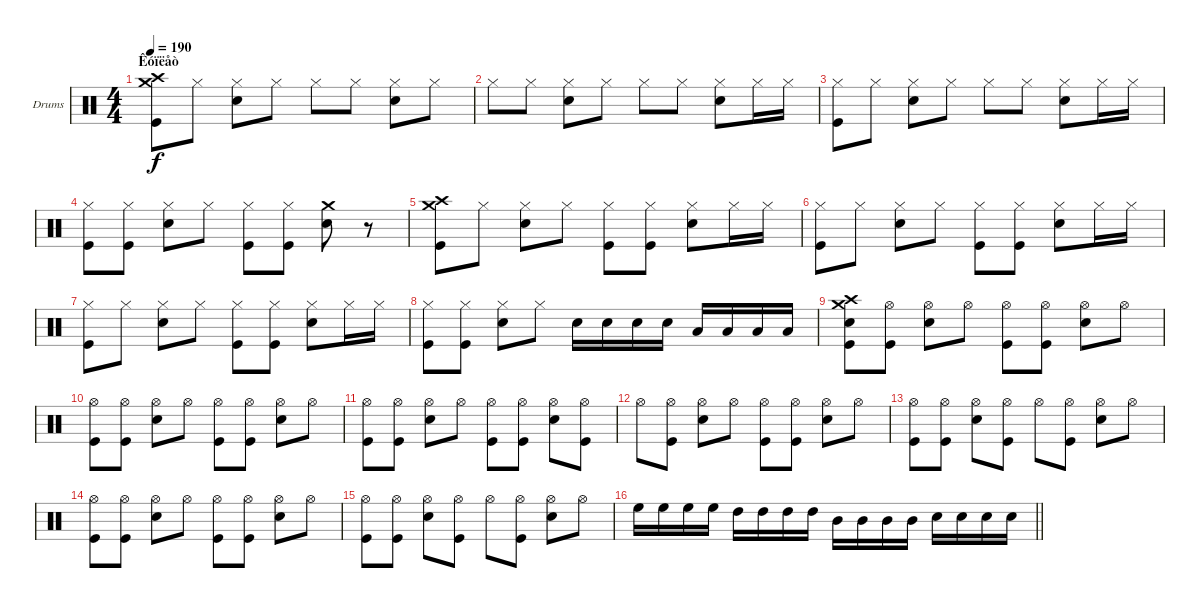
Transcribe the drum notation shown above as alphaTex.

\bracketExtendMode groupsimilarinstruments
\firstSystemTrackNameOrientation horizontal
\otherSystemsTrackNameOrientation horizontal
\track ("Drumkit" "Drums") {instrument percussion}
\staff {score}
\articulation defaults
\ts (4 4)
\section ("" "Êóïëåò")
\tempo 190
\clef neutral
\ks c
("Crash high (hit)" "Crash medium (hit)" "Kick (hit)").8{dy f} "Hi-Hat (closed)".8 ("Hi-Hat (closed)" "Snare (hit) 2").8 "Hi-Hat (closed)".8 "Hi-Hat (closed)".8 "Hi-Hat (closed)".8 ("Hi-Hat (closed)" "Snare (hit) 2").8 "Hi-Hat (closed)".8 |
"Hi-Hat (closed)".8 "Hi-Hat (closed)".8 ("Hi-Hat (closed)" "Snare (hit) 2").8 "Hi-Hat (closed)".8 "Hi-Hat (closed)".8 "Hi-Hat (closed)".8 ("Hi-Hat (closed)" "Snare (hit) 2").8 "Hi-Hat (closed)".16 "Hi-Hat (closed)".16 |
("Hi-Hat (closed)" "Kick (hit)").8 "Hi-Hat (closed)".8 ("Hi-Hat (closed)" "Snare (hit) 2").8 "Hi-Hat (closed)".8 "Hi-Hat (closed)".8 "Hi-Hat (closed)".8 ("Hi-Hat (closed)" "Snare (hit) 2").8 "Hi-Hat (closed)".16 "Hi-Hat (closed)".16 |
("Hi-Hat (closed)" "Kick (hit)").8 ("Hi-Hat (closed)" "Kick (hit)").8 ("Hi-Hat (closed)" "Snare (hit) 2").8 "Hi-Hat (closed)".8 ("Hi-Hat (closed)" "Kick (hit)").8 ("Hi-Hat (closed)" "Kick (hit)").8 ("Snare (hit) 2" "Crash medium (hit)").8 r.8 |
("Crash high (hit)" "Crash medium (hit)" "Kick (hit)").8 "Hi-Hat (closed)".8 ("Hi-Hat (closed)" "Snare (hit) 2").8 "Hi-Hat (closed)".8 ("Hi-Hat (closed)" "Kick (hit)").8 ("Hi-Hat (closed)" "Kick (hit)").8 ("Hi-Hat (closed)" "Snare (hit) 2").8 "Hi-Hat (closed)".16 "Hi-Hat (closed)".16 |
("Hi-Hat (closed)" "Kick (hit)").8 "Hi-Hat (closed)".8 ("Hi-Hat (closed)" "Snare (hit) 2").8 "Hi-Hat (closed)".8 ("Hi-Hat (closed)" "Kick (hit)").8 ("Hi-Hat (closed)" "Kick (hit)").8 ("Hi-Hat (closed)" "Snare (hit) 2").8 "Hi-Hat (closed)".16 "Hi-Hat (closed)".16 |
("Hi-Hat (closed)" "Kick (hit)").8 "Hi-Hat (closed)".8 ("Hi-Hat (closed)" "Snare (hit) 2").8 "Hi-Hat (closed)".8 ("Hi-Hat (closed)" "Kick (hit)").8 ("Hi-Hat (closed)" "Kick (hit)").8 ("Hi-Hat (closed)" "Snare (hit) 2").8 "Hi-Hat (closed)".16 "Hi-Hat (closed)".16 |
("Hi-Hat (closed)" "Kick (hit)").8 ("Hi-Hat (closed)" "Kick (hit)").8 ("Hi-Hat (closed)" "Snare (hit) 2").8 "Hi-Hat (closed)".8 "Snare (hit) 2".16 "Snare (hit) 2".16 "Snare (hit) 2".16 "Snare (hit) 2".16 "Low Tom (hit)".16 "Low Tom (hit)".16 "Low Tom (hit)".16 "Low Tom (hit)".16 |
("Crash high (hit)" "Crash medium (hit)" "Kick (hit)" "Snare (hit) 2").8 ("Hi-Hat (open)" "Kick (hit)").8 ("Hi-Hat (open)" "Snare (hit) 2").8 "Hi-Hat (open)".8 ("Hi-Hat (open)" "Kick (hit)").8 ("Hi-Hat (open)" "Kick (hit)").8 ("Hi-Hat (open)" "Snare (hit) 2").8 "Hi-Hat (open)".8 |
("Hi-Hat (open)" "Kick (hit)").8 ("Hi-Hat (open)" "Kick (hit)").8 ("Hi-Hat (open)" "Snare (hit) 2").8 "Hi-Hat (open)".8 ("Hi-Hat (open)" "Kick (hit)").8 ("Hi-Hat (open)" "Kick (hit)").8 ("Hi-Hat (open)" "Snare (hit) 2").8 "Hi-Hat (open)".8 |
("Hi-Hat (open)" "Kick (hit)").8 ("Hi-Hat (open)" "Kick (hit)").8 ("Hi-Hat (open)" "Snare (hit) 2").8 "Hi-Hat (open)".8 ("Hi-Hat (open)" "Kick (hit)").8 ("Hi-Hat (open)" "Kick (hit)").8 ("Hi-Hat (open)" "Snare (hit) 2").8 ("Hi-Hat (open)" "Kick (hit)").8 |
"Hi-Hat (open)".8 ("Hi-Hat (open)" "Kick (hit)").8 ("Hi-Hat (open)" "Snare (hit) 2").8 "Hi-Hat (open)".8 ("Hi-Hat (open)" "Kick (hit)").8 ("Hi-Hat (open)" "Kick (hit)").8 ("Hi-Hat (open)" "Snare (hit) 2").8 "Hi-Hat (open)".8 |
("Hi-Hat (open)" "Kick (hit)").8 ("Hi-Hat (open)" "Kick (hit)").8 ("Hi-Hat (open)" "Snare (hit) 2").8 ("Hi-Hat (open)" "Kick (hit)").8 "Hi-Hat (open)".8 ("Hi-Hat (open)" "Kick (hit)").8 ("Hi-Hat (open)" "Snare (hit) 2").8 "Hi-Hat (open)".8 |
("Hi-Hat (open)" "Kick (hit)").8 ("Hi-Hat (open)" "Kick (hit)").8 ("Hi-Hat (open)" "Snare (hit) 2").8 "Hi-Hat (open)".8 ("Hi-Hat (open)" "Kick (hit)").8 ("Hi-Hat (open)" "Kick (hit)").8 ("Hi-Hat (open)" "Snare (hit) 2").8 "Hi-Hat (open)".8 |
("Hi-Hat (open)" "Kick (hit)").8 ("Hi-Hat (open)" "Kick (hit)").8 ("Hi-Hat (open)" "Snare (hit) 2").8 ("Hi-Hat (open)" "Kick (hit)").8 "Hi-Hat (open)".8 ("Hi-Hat (open)" "Kick (hit)").8 ("Hi-Hat (open)" "Snare (hit) 2").8 "Hi-Hat (open)".8 |
\barLineRight lightlight "High Floor Tom (hit)".16 "High Floor Tom (hit)".16 "High Floor Tom (hit)".16 "High Floor Tom (hit)".16 "High Tom (hit)".16 "High Tom (hit)".16 "High Tom (hit)".16 "High Tom (hit)".16 "Mid Tom (hit)".16 "Mid Tom (hit)".16 "Mid Tom (hit)".16 "Mid Tom (hit)".16 "Snare (hit) 2".16 "Snare (hit) 2".16 "Snare (hit) 2".16 "Snare (hit) 2".16
